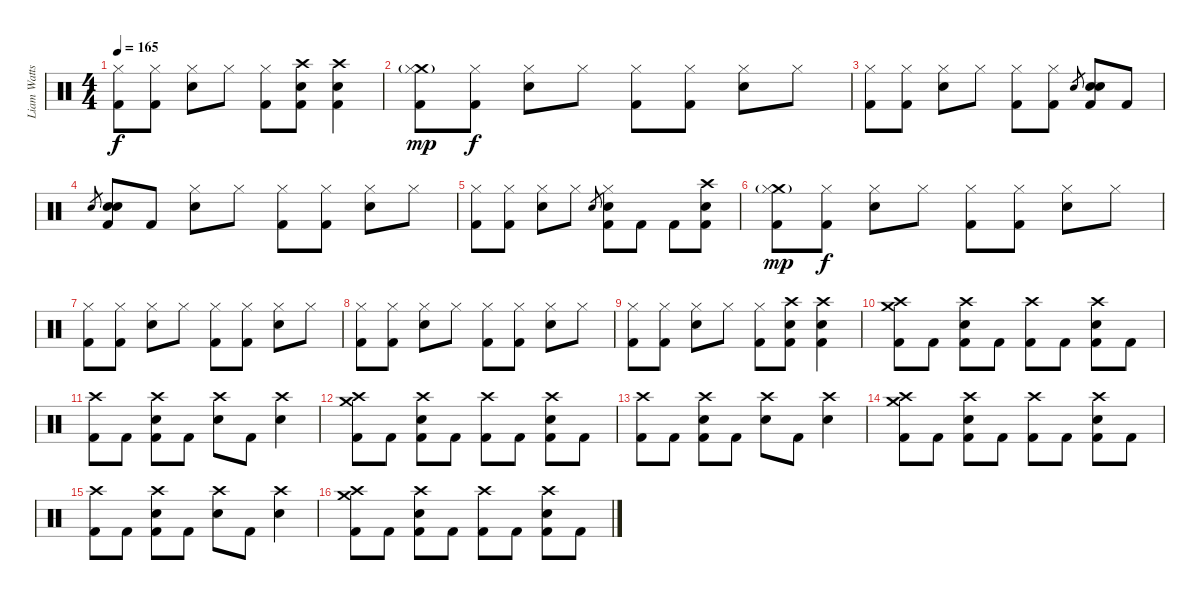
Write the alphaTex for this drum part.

\track ("Liam Watts (Percussion)" "Liam Watts") {instrument percussion}
\staff {score}
\articulation defaults
\ts (4 4)
\tempo 165
\clef neutral
\ks c
("Hi-Hat (closed)" "Kick (hit) 2").8{dy f} ("Hi-Hat (closed)" "Kick (hit) 2").8 ("Hi-Hat (closed)" "Snare (hit) 2").8 "Hi-Hat (closed)".8 ("Hi-Hat (closed)" "Kick (hit) 2").8 ("Crash high (hit)" "Snare (hit) 2" "Kick (hit) 2").8 ("Crash high (hit)" "Snare (hit) 2" "Kick (hit) 2").4 |
("Crash medium (hit)"{g} "Hi-Hat (closed)" "Kick (hit) 2").8{dy mp} ("Hi-Hat (closed)" "Kick (hit) 2").8{dy f} ("Hi-Hat (closed)" "Snare (hit) 2").8 "Hi-Hat (closed)".8 ("Hi-Hat (closed)" "Kick (hit) 2").8 ("Hi-Hat (closed)" "Kick (hit) 2").8 ("Hi-Hat (closed)" "Snare (hit) 2").8 "Hi-Hat (closed)".8 |
("Hi-Hat (closed)" "Kick (hit) 2").8 ("Hi-Hat (closed)" "Kick (hit) 2").8 ("Hi-Hat (closed)" "Snare (hit) 2").8 "Hi-Hat (closed)".8 ("Hi-Hat (closed)" "Kick (hit) 2").8 ("Hi-Hat (closed)" "Kick (hit) 2").8 "Snare (hit) 2".8{gr} ("Snare (hit) 2" "Snare (hit) 2" "Kick (hit) 2").8 "Kick (hit) 2".8 |
"Snare (hit) 2".8{gr} ("Snare (hit) 2" "Snare (hit) 2" "Kick (hit) 2").8 "Kick (hit) 2".8 ("Hi-Hat (closed)" "Snare (hit) 2").8 "Hi-Hat (closed)".8 ("Hi-Hat (closed)" "Kick (hit) 2").8 ("Hi-Hat (closed)" "Kick (hit) 2").8 ("Hi-Hat (closed)" "Snare (hit) 2").8 "Hi-Hat (closed)".8 |
("Hi-Hat (closed)" "Kick (hit) 2").8 ("Hi-Hat (closed)" "Kick (hit) 2").8 ("Hi-Hat (closed)" "Snare (hit) 2").8 "Hi-Hat (closed)".8 "Snare (hit) 2".8{gr} ("Hi-Hat (closed)" "Snare (hit) 2" "Kick (hit) 2").8 "Kick (hit) 2".8 "Kick (hit) 2".8 ("Crash high (hit)" "Snare (hit) 2" "Kick (hit) 2").8 |
("Crash medium (hit)"{g} "Hi-Hat (closed)" "Kick (hit) 2").8{dy mp} ("Hi-Hat (closed)" "Kick (hit) 2").8{dy f} ("Hi-Hat (closed)" "Snare (hit) 2").8 "Hi-Hat (closed)".8 ("Hi-Hat (closed)" "Kick (hit) 2").8 ("Hi-Hat (closed)" "Kick (hit) 2").8 ("Hi-Hat (closed)" "Snare (hit) 2").8 "Hi-Hat (closed)".8 |
("Hi-Hat (closed)" "Kick (hit) 2").8 ("Hi-Hat (closed)" "Kick (hit) 2").8 ("Hi-Hat (closed)" "Snare (hit) 2").8 "Hi-Hat (closed)".8 ("Hi-Hat (closed)" "Kick (hit) 2").8 ("Hi-Hat (closed)" "Kick (hit) 2").8 ("Hi-Hat (closed)" "Snare (hit) 2").8 "Hi-Hat (closed)".8 |
("Hi-Hat (closed)" "Kick (hit) 2").8 ("Hi-Hat (closed)" "Kick (hit) 2").8 ("Hi-Hat (closed)" "Snare (hit) 2").8 "Hi-Hat (closed)".8 ("Hi-Hat (closed)" "Kick (hit) 2").8 ("Hi-Hat (closed)" "Kick (hit) 2").8 ("Hi-Hat (closed)" "Snare (hit) 2").8 "Hi-Hat (closed)".8 |
("Hi-Hat (closed)" "Kick (hit) 2").8 ("Hi-Hat (closed)" "Kick (hit) 2").8 ("Hi-Hat (closed)" "Snare (hit) 2").8 "Hi-Hat (closed)".8 ("Hi-Hat (closed)" "Kick (hit) 2").8 ("Crash high (hit)" "Snare (hit) 2" "Kick (hit) 2").8 ("Crash high (hit)" "Snare (hit) 2" "Kick (hit) 2").4 |
("Crash medium (hit)" "Crash high (hit)" "Kick (hit) 2").8 "Kick (hit) 2".8 ("Crash high (hit)" "Snare (hit) 2" "Kick (hit) 2").8 "Kick (hit) 2".8 ("Crash high (hit)" "Kick (hit) 2").8 "Kick (hit) 2".8 ("Crash high (hit)" "Snare (hit) 2" "Kick (hit) 2").8 "Kick (hit) 2".8 |
("Crash high (hit)" "Kick (hit) 2").8 "Kick (hit) 2".8 ("Crash high (hit)" "Snare (hit) 2" "Kick (hit) 2").8 "Kick (hit) 2".8 ("Crash high (hit)" "Snare (hit) 2").8 "Kick (hit) 2".8 ("Crash high (hit)" "Snare (hit) 2").4 |
("Crash medium (hit)" "Crash high (hit)" "Kick (hit) 2").8 "Kick (hit) 2".8 ("Crash high (hit)" "Snare (hit) 2" "Kick (hit) 2").8 "Kick (hit) 2".8 ("Crash high (hit)" "Kick (hit) 2").8 "Kick (hit) 2".8 ("Crash high (hit)" "Snare (hit) 2" "Kick (hit) 2").8 "Kick (hit) 2".8 |
("Crash high (hit)" "Kick (hit) 2").8 "Kick (hit) 2".8 ("Crash high (hit)" "Snare (hit) 2" "Kick (hit) 2").8 "Kick (hit) 2".8 ("Crash high (hit)" "Snare (hit) 2").8 "Kick (hit) 2".8 ("Crash high (hit)" "Snare (hit) 2").4 |
("Crash medium (hit)" "Crash high (hit)" "Kick (hit) 2").8 "Kick (hit) 2".8 ("Crash high (hit)" "Snare (hit) 2" "Kick (hit) 2").8 "Kick (hit) 2".8 ("Crash high (hit)" "Kick (hit) 2").8 "Kick (hit) 2".8 ("Crash high (hit)" "Snare (hit) 2" "Kick (hit) 2").8 "Kick (hit) 2".8 |
("Crash high (hit)" "Kick (hit) 2").8 "Kick (hit) 2".8 ("Crash high (hit)" "Snare (hit) 2" "Kick (hit) 2").8 "Kick (hit) 2".8 ("Crash high (hit)" "Snare (hit) 2").8 "Kick (hit) 2".8 ("Crash high (hit)" "Snare (hit) 2").4 |
("Crash medium (hit)" "Crash high (hit)" "Kick (hit) 2").8 "Kick (hit) 2".8 ("Crash high (hit)" "Snare (hit) 2" "Kick (hit) 2").8 "Kick (hit) 2".8 ("Crash high (hit)" "Kick (hit) 2").8 "Kick (hit) 2".8 ("Crash high (hit)" "Snare (hit) 2" "Kick (hit) 2").8 "Kick (hit) 2".8
